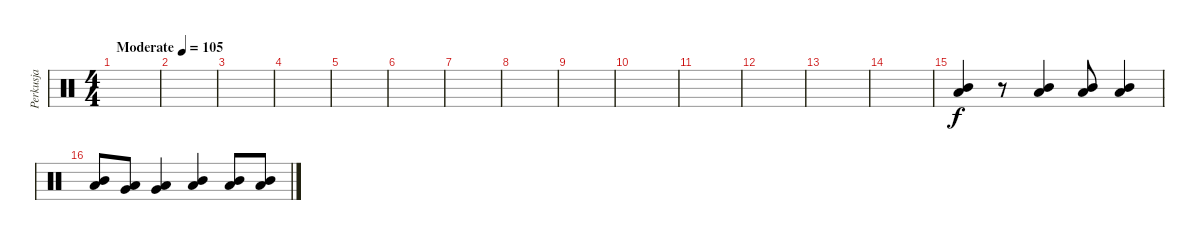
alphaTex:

\track ("Perkusja" "Perkusja") {instrument percussion}
\staff {score}
\articulation defaults
\ts (4 4)
\tempo (105 "Moderate")
\clef neutral
\ks c
|
|
|
|
|
|
|
|
|
|
|
|
|
|
("Mid Tom (hit)" "Low Tom (hit)").4 r.8 ("Mid Tom (hit)" "Low Tom (hit)").4 ("Mid Tom (hit)" "Low Tom (hit)").8 ("Mid Tom (hit)" "Low Tom (hit)").4 |
("Mid Tom (hit)" "Low Tom (hit)").8 ("Low Tom (hit)" "Very Low Tom (hit)").8 ("Very Low Tom (hit)" "Low Floor Tom (hit)").4 ("Mid Tom (hit)" "Low Tom (hit)").4 ("Mid Tom (hit)" "Low Tom (hit)").8 ("Mid Tom (hit)" "Low Tom (hit)").8
